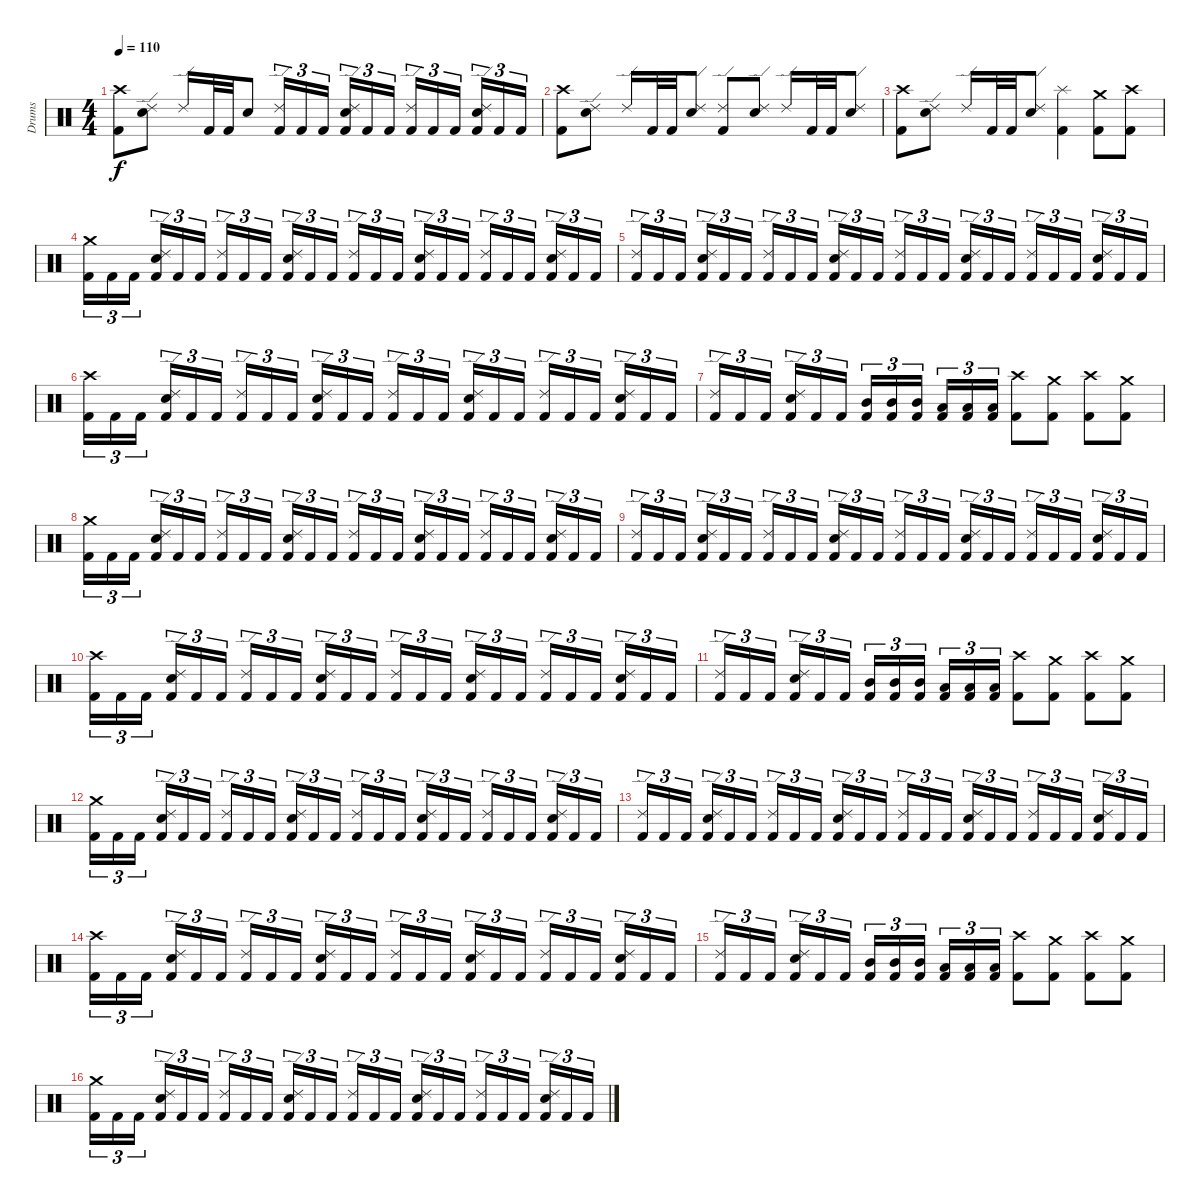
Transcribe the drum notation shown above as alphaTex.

\track ("Drums" "Drums") {instrument percussion}
\staff {score}
\articulation defaults
\ts (4 4)
\tempo 110
\clef neutral
\ks c
("Kick (hit) 2" "Crash high (hit)").8{dy f} ("Snare (hit) 2" "Ride (edge) 2").8 "Ride (edge) 2".16 "Kick (hit) 2".32 "Kick (hit) 2".32 "Snare (hit) 2".8 ("Kick (hit) 2" "Ride (edge) 2").16{tu (3 2)} "Kick (hit) 2".16{tu (3 2)} "Kick (hit) 2".16{tu (3 2)} ("Kick (hit) 2" "Snare (hit) 2" "Ride (edge) 2").16{tu (3 2)} "Kick (hit) 2".16{tu (3 2)} "Kick (hit) 2".16{tu (3 2)} ("Kick (hit) 2" "Ride (edge) 2").16{tu (3 2)} "Kick (hit) 2".16{tu (3 2)} "Kick (hit) 2".16{tu (3 2)} ("Kick (hit) 2" "Snare (hit) 2" "Ride (edge) 2").16{tu (3 2)} "Kick (hit) 2".16{tu (3 2)} "Kick (hit) 2".16{tu (3 2)} |
("Kick (hit) 2" "Crash high (hit)").8 ("Snare (hit) 2" "Ride (edge) 2").8 "Ride (edge) 2".16 "Kick (hit) 2".32 "Kick (hit) 2".32 ("Snare (hit) 2" "Ride (edge) 2").8 ("Kick (hit) 2" "Ride (edge) 2").8 ("Snare (hit) 2" "Ride (edge) 2").8 "Ride (edge) 2".16 "Kick (hit) 2".32 "Kick (hit) 2".32 ("Snare (hit) 2" "Ride (edge) 2").8 |
("Kick (hit) 2" "Crash high (hit)").8 ("Snare (hit) 2" "Ride (edge) 2").8 "Ride (edge) 2".16 "Kick (hit) 2".32 "Kick (hit) 2".32 ("Snare (hit) 2" "Ride (edge) 2").8 ("Kick (hit) 2" "Splash (hit)").4 ("Kick (hit) 2" "Crash medium (hit)").8 ("Kick (hit) 2" "Crash high (hit)").8 |
("Kick (hit) 2" "Crash medium (hit)").16{tu (3 2)} "Kick (hit) 2".16{tu (3 2)} "Kick (hit) 2".16{tu (3 2)} ("Kick (hit) 2" "Snare (hit) 2" "Ride (edge) 2").16{tu (3 2)} "Kick (hit) 2".16{tu (3 2)} "Kick (hit) 2".16{tu (3 2)} ("Kick (hit) 2" "Ride (edge) 2").16{tu (3 2)} "Kick (hit) 2".16{tu (3 2)} "Kick (hit) 2".16{tu (3 2)} ("Kick (hit) 2" "Snare (hit) 2" "Ride (edge) 2").16{tu (3 2)} "Kick (hit) 2".16{tu (3 2)} "Kick (hit) 2".16{tu (3 2)} ("Kick (hit) 2" "Ride (edge) 2").16{tu (3 2)} "Kick (hit) 2".16{tu (3 2)} "Kick (hit) 2".16{tu (3 2)} ("Kick (hit) 2" "Snare (hit) 2" "Ride (edge) 2").16{tu (3 2)} "Kick (hit) 2".16{tu (3 2)} "Kick (hit) 2".16{tu (3 2)} ("Kick (hit) 2" "Ride (edge) 2").16{tu (3 2)} "Kick (hit) 2".16{tu (3 2)} "Kick (hit) 2".16{tu (3 2)} ("Kick (hit) 2" "Snare (hit) 2" "Ride (edge) 2").16{tu (3 2)} "Kick (hit) 2".16{tu (3 2)} "Kick (hit) 2".16{tu (3 2)} |
("Kick (hit) 2" "Ride (edge) 2").16{tu (3 2)} "Kick (hit) 2".16{tu (3 2)} "Kick (hit) 2".16{tu (3 2)} ("Kick (hit) 2" "Snare (hit) 2" "Ride (edge) 2").16{tu (3 2)} "Kick (hit) 2".16{tu (3 2)} "Kick (hit) 2".16{tu (3 2)} ("Kick (hit) 2" "Ride (edge) 2").16{tu (3 2)} "Kick (hit) 2".16{tu (3 2)} "Kick (hit) 2".16{tu (3 2)} ("Kick (hit) 2" "Snare (hit) 2" "Ride (edge) 2").16{tu (3 2)} "Kick (hit) 2".16{tu (3 2)} "Kick (hit) 2".16{tu (3 2)} ("Kick (hit) 2" "Ride (edge) 2").16{tu (3 2)} "Kick (hit) 2".16{tu (3 2)} "Kick (hit) 2".16{tu (3 2)} ("Kick (hit) 2" "Snare (hit) 2" "Ride (edge) 2").16{tu (3 2)} "Kick (hit) 2".16{tu (3 2)} "Kick (hit) 2".16{tu (3 2)} ("Kick (hit) 2" "Ride (edge) 2").16{tu (3 2)} "Kick (hit) 2".16{tu (3 2)} "Kick (hit) 2".16{tu (3 2)} ("Kick (hit) 2" "Snare (hit) 2" "Ride (edge) 2").16{tu (3 2)} "Kick (hit) 2".16{tu (3 2)} "Kick (hit) 2".16{tu (3 2)} |
("Kick (hit) 2" "Crash high (hit)").16{tu (3 2)} "Kick (hit) 2".16{tu (3 2)} "Kick (hit) 2".16{tu (3 2)} ("Kick (hit) 2" "Snare (hit) 2" "Ride (edge) 2").16{tu (3 2)} "Kick (hit) 2".16{tu (3 2)} "Kick (hit) 2".16{tu (3 2)} ("Kick (hit) 2" "Ride (edge) 2").16{tu (3 2)} "Kick (hit) 2".16{tu (3 2)} "Kick (hit) 2".16{tu (3 2)} ("Kick (hit) 2" "Snare (hit) 2" "Ride (edge) 2").16{tu (3 2)} "Kick (hit) 2".16{tu (3 2)} "Kick (hit) 2".16{tu (3 2)} ("Kick (hit) 2" "Ride (edge) 2").16{tu (3 2)} "Kick (hit) 2".16{tu (3 2)} "Kick (hit) 2".16{tu (3 2)} ("Kick (hit) 2" "Snare (hit) 2" "Ride (edge) 2").16{tu (3 2)} "Kick (hit) 2".16{tu (3 2)} "Kick (hit) 2".16{tu (3 2)} ("Kick (hit) 2" "Ride (edge) 2").16{tu (3 2)} "Kick (hit) 2".16{tu (3 2)} "Kick (hit) 2".16{tu (3 2)} ("Kick (hit) 2" "Snare (hit) 2" "Ride (edge) 2").16{tu (3 2)} "Kick (hit) 2".16{tu (3 2)} "Kick (hit) 2".16{tu (3 2)} |
("Kick (hit) 2" "Ride (edge) 2").16{tu (3 2)} "Kick (hit) 2".16{tu (3 2)} "Kick (hit) 2".16{tu (3 2)} ("Kick (hit) 2" "Snare (hit) 2" "Ride (edge) 2").16{tu (3 2)} "Kick (hit) 2".16{tu (3 2)} "Kick (hit) 2".16{tu (3 2)} ("Kick (hit) 2" "Mid Tom (hit)").16{tu (3 2)} ("Kick (hit) 2" "Mid Tom (hit)").16{tu (3 2)} ("Kick (hit) 2" "Mid Tom (hit)").16{tu (3 2)} ("Kick (hit) 2" "Low Tom (hit)").16{tu (3 2)} ("Kick (hit) 2" "Low Tom (hit)").16{tu (3 2)} ("Kick (hit) 2" "Low Tom (hit)").16{tu (3 2)} ("Kick (hit) 2" "Crash high (hit)").8 ("Kick (hit) 2" "Crash medium (hit)").8 ("Kick (hit) 2" "Crash high (hit)").8 ("Kick (hit) 2" "Crash medium (hit)").8 |
("Kick (hit) 2" "Crash medium (hit)").16{tu (3 2)} "Kick (hit) 2".16{tu (3 2)} "Kick (hit) 2".16{tu (3 2)} ("Kick (hit) 2" "Snare (hit) 2" "Ride (edge) 2").16{tu (3 2)} "Kick (hit) 2".16{tu (3 2)} "Kick (hit) 2".16{tu (3 2)} ("Kick (hit) 2" "Ride (edge) 2").16{tu (3 2)} "Kick (hit) 2".16{tu (3 2)} "Kick (hit) 2".16{tu (3 2)} ("Kick (hit) 2" "Snare (hit) 2" "Ride (edge) 2").16{tu (3 2)} "Kick (hit) 2".16{tu (3 2)} "Kick (hit) 2".16{tu (3 2)} ("Kick (hit) 2" "Ride (edge) 2").16{tu (3 2)} "Kick (hit) 2".16{tu (3 2)} "Kick (hit) 2".16{tu (3 2)} ("Kick (hit) 2" "Snare (hit) 2" "Ride (edge) 2").16{tu (3 2)} "Kick (hit) 2".16{tu (3 2)} "Kick (hit) 2".16{tu (3 2)} ("Kick (hit) 2" "Ride (edge) 2").16{tu (3 2)} "Kick (hit) 2".16{tu (3 2)} "Kick (hit) 2".16{tu (3 2)} ("Kick (hit) 2" "Snare (hit) 2" "Ride (edge) 2").16{tu (3 2)} "Kick (hit) 2".16{tu (3 2)} "Kick (hit) 2".16{tu (3 2)} |
("Kick (hit) 2" "Ride (edge) 2").16{tu (3 2)} "Kick (hit) 2".16{tu (3 2)} "Kick (hit) 2".16{tu (3 2)} ("Kick (hit) 2" "Snare (hit) 2" "Ride (edge) 2").16{tu (3 2)} "Kick (hit) 2".16{tu (3 2)} "Kick (hit) 2".16{tu (3 2)} ("Kick (hit) 2" "Ride (edge) 2").16{tu (3 2)} "Kick (hit) 2".16{tu (3 2)} "Kick (hit) 2".16{tu (3 2)} ("Kick (hit) 2" "Snare (hit) 2" "Ride (edge) 2").16{tu (3 2)} "Kick (hit) 2".16{tu (3 2)} "Kick (hit) 2".16{tu (3 2)} ("Kick (hit) 2" "Ride (edge) 2").16{tu (3 2)} "Kick (hit) 2".16{tu (3 2)} "Kick (hit) 2".16{tu (3 2)} ("Kick (hit) 2" "Snare (hit) 2" "Ride (edge) 2").16{tu (3 2)} "Kick (hit) 2".16{tu (3 2)} "Kick (hit) 2".16{tu (3 2)} ("Kick (hit) 2" "Ride (edge) 2").16{tu (3 2)} "Kick (hit) 2".16{tu (3 2)} "Kick (hit) 2".16{tu (3 2)} ("Kick (hit) 2" "Snare (hit) 2" "Ride (edge) 2").16{tu (3 2)} "Kick (hit) 2".16{tu (3 2)} "Kick (hit) 2".16{tu (3 2)} |
("Kick (hit) 2" "Crash high (hit)").16{tu (3 2)} "Kick (hit) 2".16{tu (3 2)} "Kick (hit) 2".16{tu (3 2)} ("Kick (hit) 2" "Snare (hit) 2" "Ride (edge) 2").16{tu (3 2)} "Kick (hit) 2".16{tu (3 2)} "Kick (hit) 2".16{tu (3 2)} ("Kick (hit) 2" "Ride (edge) 2").16{tu (3 2)} "Kick (hit) 2".16{tu (3 2)} "Kick (hit) 2".16{tu (3 2)} ("Kick (hit) 2" "Snare (hit) 2" "Ride (edge) 2").16{tu (3 2)} "Kick (hit) 2".16{tu (3 2)} "Kick (hit) 2".16{tu (3 2)} ("Kick (hit) 2" "Ride (edge) 2").16{tu (3 2)} "Kick (hit) 2".16{tu (3 2)} "Kick (hit) 2".16{tu (3 2)} ("Kick (hit) 2" "Snare (hit) 2" "Ride (edge) 2").16{tu (3 2)} "Kick (hit) 2".16{tu (3 2)} "Kick (hit) 2".16{tu (3 2)} ("Kick (hit) 2" "Ride (edge) 2").16{tu (3 2)} "Kick (hit) 2".16{tu (3 2)} "Kick (hit) 2".16{tu (3 2)} ("Kick (hit) 2" "Snare (hit) 2" "Ride (edge) 2").16{tu (3 2)} "Kick (hit) 2".16{tu (3 2)} "Kick (hit) 2".16{tu (3 2)} |
("Kick (hit) 2" "Ride (edge) 2").16{tu (3 2)} "Kick (hit) 2".16{tu (3 2)} "Kick (hit) 2".16{tu (3 2)} ("Kick (hit) 2" "Snare (hit) 2" "Ride (edge) 2").16{tu (3 2)} "Kick (hit) 2".16{tu (3 2)} "Kick (hit) 2".16{tu (3 2)} ("Kick (hit) 2" "Mid Tom (hit)").16{tu (3 2)} ("Kick (hit) 2" "Mid Tom (hit)").16{tu (3 2)} ("Kick (hit) 2" "Mid Tom (hit)").16{tu (3 2)} ("Kick (hit) 2" "Low Tom (hit)").16{tu (3 2)} ("Kick (hit) 2" "Low Tom (hit)").16{tu (3 2)} ("Kick (hit) 2" "Low Tom (hit)").16{tu (3 2)} ("Kick (hit) 2" "Crash high (hit)").8 ("Kick (hit) 2" "Crash medium (hit)").8 ("Kick (hit) 2" "Crash high (hit)").8 ("Kick (hit) 2" "Crash medium (hit)").8 |
("Kick (hit) 2" "Crash medium (hit)").16{tu (3 2)} "Kick (hit) 2".16{tu (3 2)} "Kick (hit) 2".16{tu (3 2)} ("Kick (hit) 2" "Snare (hit) 2" "Ride (edge) 2").16{tu (3 2)} "Kick (hit) 2".16{tu (3 2)} "Kick (hit) 2".16{tu (3 2)} ("Kick (hit) 2" "Ride (edge) 2").16{tu (3 2)} "Kick (hit) 2".16{tu (3 2)} "Kick (hit) 2".16{tu (3 2)} ("Kick (hit) 2" "Snare (hit) 2" "Ride (edge) 2").16{tu (3 2)} "Kick (hit) 2".16{tu (3 2)} "Kick (hit) 2".16{tu (3 2)} ("Kick (hit) 2" "Ride (edge) 2").16{tu (3 2)} "Kick (hit) 2".16{tu (3 2)} "Kick (hit) 2".16{tu (3 2)} ("Kick (hit) 2" "Snare (hit) 2" "Ride (edge) 2").16{tu (3 2)} "Kick (hit) 2".16{tu (3 2)} "Kick (hit) 2".16{tu (3 2)} ("Kick (hit) 2" "Ride (edge) 2").16{tu (3 2)} "Kick (hit) 2".16{tu (3 2)} "Kick (hit) 2".16{tu (3 2)} ("Kick (hit) 2" "Snare (hit) 2" "Ride (edge) 2").16{tu (3 2)} "Kick (hit) 2".16{tu (3 2)} "Kick (hit) 2".16{tu (3 2)} |
("Kick (hit) 2" "Ride (edge) 2").16{tu (3 2)} "Kick (hit) 2".16{tu (3 2)} "Kick (hit) 2".16{tu (3 2)} ("Kick (hit) 2" "Snare (hit) 2" "Ride (edge) 2").16{tu (3 2)} "Kick (hit) 2".16{tu (3 2)} "Kick (hit) 2".16{tu (3 2)} ("Kick (hit) 2" "Ride (edge) 2").16{tu (3 2)} "Kick (hit) 2".16{tu (3 2)} "Kick (hit) 2".16{tu (3 2)} ("Kick (hit) 2" "Snare (hit) 2" "Ride (edge) 2").16{tu (3 2)} "Kick (hit) 2".16{tu (3 2)} "Kick (hit) 2".16{tu (3 2)} ("Kick (hit) 2" "Ride (edge) 2").16{tu (3 2)} "Kick (hit) 2".16{tu (3 2)} "Kick (hit) 2".16{tu (3 2)} ("Kick (hit) 2" "Snare (hit) 2" "Ride (edge) 2").16{tu (3 2)} "Kick (hit) 2".16{tu (3 2)} "Kick (hit) 2".16{tu (3 2)} ("Kick (hit) 2" "Ride (edge) 2").16{tu (3 2)} "Kick (hit) 2".16{tu (3 2)} "Kick (hit) 2".16{tu (3 2)} ("Kick (hit) 2" "Snare (hit) 2" "Ride (edge) 2").16{tu (3 2)} "Kick (hit) 2".16{tu (3 2)} "Kick (hit) 2".16{tu (3 2)} |
("Kick (hit) 2" "Crash high (hit)").16{tu (3 2)} "Kick (hit) 2".16{tu (3 2)} "Kick (hit) 2".16{tu (3 2)} ("Kick (hit) 2" "Snare (hit) 2" "Ride (edge) 2").16{tu (3 2)} "Kick (hit) 2".16{tu (3 2)} "Kick (hit) 2".16{tu (3 2)} ("Kick (hit) 2" "Ride (edge) 2").16{tu (3 2)} "Kick (hit) 2".16{tu (3 2)} "Kick (hit) 2".16{tu (3 2)} ("Kick (hit) 2" "Snare (hit) 2" "Ride (edge) 2").16{tu (3 2)} "Kick (hit) 2".16{tu (3 2)} "Kick (hit) 2".16{tu (3 2)} ("Kick (hit) 2" "Ride (edge) 2").16{tu (3 2)} "Kick (hit) 2".16{tu (3 2)} "Kick (hit) 2".16{tu (3 2)} ("Kick (hit) 2" "Snare (hit) 2" "Ride (edge) 2").16{tu (3 2)} "Kick (hit) 2".16{tu (3 2)} "Kick (hit) 2".16{tu (3 2)} ("Kick (hit) 2" "Ride (edge) 2").16{tu (3 2)} "Kick (hit) 2".16{tu (3 2)} "Kick (hit) 2".16{tu (3 2)} ("Kick (hit) 2" "Snare (hit) 2" "Ride (edge) 2").16{tu (3 2)} "Kick (hit) 2".16{tu (3 2)} "Kick (hit) 2".16{tu (3 2)} |
("Kick (hit) 2" "Ride (edge) 2").16{tu (3 2)} "Kick (hit) 2".16{tu (3 2)} "Kick (hit) 2".16{tu (3 2)} ("Kick (hit) 2" "Snare (hit) 2" "Ride (edge) 2").16{tu (3 2)} "Kick (hit) 2".16{tu (3 2)} "Kick (hit) 2".16{tu (3 2)} ("Kick (hit) 2" "Mid Tom (hit)").16{tu (3 2)} ("Kick (hit) 2" "Mid Tom (hit)").16{tu (3 2)} ("Kick (hit) 2" "Mid Tom (hit)").16{tu (3 2)} ("Kick (hit) 2" "Low Tom (hit)").16{tu (3 2)} ("Kick (hit) 2" "Low Tom (hit)").16{tu (3 2)} ("Kick (hit) 2" "Low Tom (hit)").16{tu (3 2)} ("Kick (hit) 2" "Crash high (hit)").8 ("Kick (hit) 2" "Crash medium (hit)").8 ("Kick (hit) 2" "Crash high (hit)").8 ("Kick (hit) 2" "Crash medium (hit)").8 |
("Kick (hit) 2" "Crash medium (hit)").16{tu (3 2)} "Kick (hit) 2".16{tu (3 2)} "Kick (hit) 2".16{tu (3 2)} ("Kick (hit) 2" "Snare (hit) 2" "Ride (edge) 2").16{tu (3 2)} "Kick (hit) 2".16{tu (3 2)} "Kick (hit) 2".16{tu (3 2)} ("Kick (hit) 2" "Ride (edge) 2").16{tu (3 2)} "Kick (hit) 2".16{tu (3 2)} "Kick (hit) 2".16{tu (3 2)} ("Kick (hit) 2" "Snare (hit) 2" "Ride (edge) 2").16{tu (3 2)} "Kick (hit) 2".16{tu (3 2)} "Kick (hit) 2".16{tu (3 2)} ("Kick (hit) 2" "Ride (edge) 2").16{tu (3 2)} "Kick (hit) 2".16{tu (3 2)} "Kick (hit) 2".16{tu (3 2)} ("Kick (hit) 2" "Snare (hit) 2" "Ride (edge) 2").16{tu (3 2)} "Kick (hit) 2".16{tu (3 2)} "Kick (hit) 2".16{tu (3 2)} ("Kick (hit) 2" "Ride (edge) 2").16{tu (3 2)} "Kick (hit) 2".16{tu (3 2)} "Kick (hit) 2".16{tu (3 2)} ("Kick (hit) 2" "Snare (hit) 2" "Ride (edge) 2").16{tu (3 2)} "Kick (hit) 2".16{tu (3 2)} "Kick (hit) 2".16{tu (3 2)}
